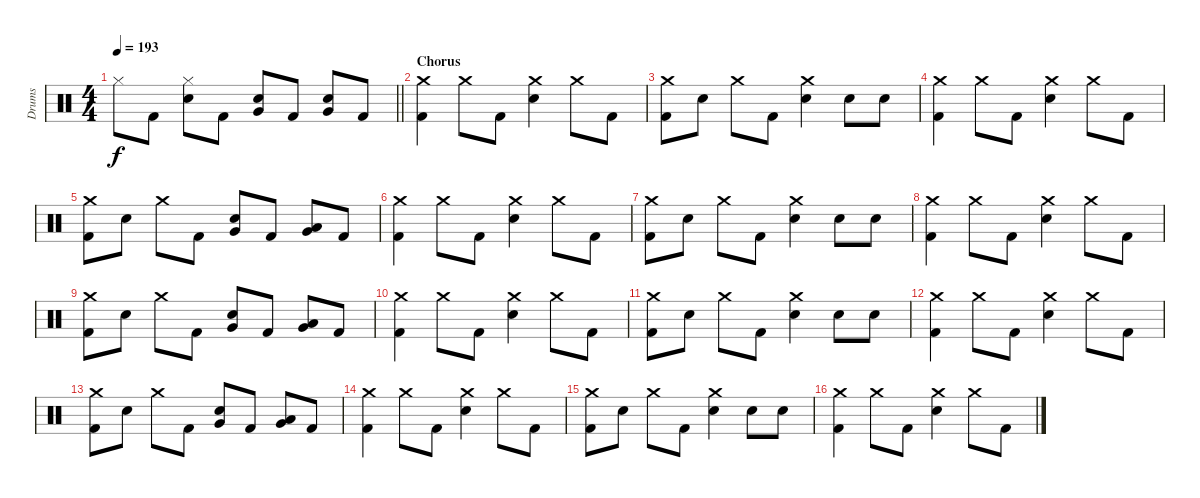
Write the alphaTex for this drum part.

\track ("Drums" "Drums") {instrument percussion}
\staff {score}
\articulation defaults
\ts (4 4)
\tempo 193
\clef neutral
\barLineRight lightlight
\ks c "Hi-Hat (closed)".8{dy f} "Kick (hit) 2".8
("Hi-Hat (closed)" "Electric Snare (hit)").8 "Kick (hit) 2".8 ("Very Low Tom (hit)" "Electric Snare (hit)").8 "Kick (hit) 2".8 ("Very Low Tom (hit)" "Electric Snare (hit)").8 "Kick (hit) 2".8 |
\section ("" "Chorus")
("Crash medium (hit)" "Kick (hit) 2").4 "Crash medium (hit)".8 "Kick (hit) 2".8 ("Crash medium (hit)" "Electric Snare (hit)").4 "Crash medium (hit)".8 "Kick (hit) 2".8 |
("Crash medium (hit)" "Kick (hit) 2").8 "Electric Snare (hit)".8 "Crash medium (hit)".8 "Kick (hit) 2".8 ("Crash medium (hit)" "Electric Snare (hit)").4 "Electric Snare (hit)".8 "Electric Snare (hit)".8 |
("Crash medium (hit)" "Kick (hit) 2").4 "Crash medium (hit)".8 "Kick (hit) 2".8 ("Crash medium (hit)" "Electric Snare (hit)").4 "Crash medium (hit)".8 "Kick (hit) 2".8 |
("Crash medium (hit)" "Kick (hit) 2").8 "Electric Snare (hit)".8 "Crash medium (hit)".8 "Kick (hit) 2".8 ("Very Low Tom (hit)" "Electric Snare (hit)").8 "Kick (hit) 2".8 ("Low Floor Tom (hit)" "Very Low Tom (hit)").8 "Kick (hit) 2".8 |
("Crash medium (hit)" "Kick (hit) 2").4 "Crash medium (hit)".8 "Kick (hit) 2".8 ("Crash medium (hit)" "Electric Snare (hit)").4 "Crash medium (hit)".8 "Kick (hit) 2".8 |
("Crash medium (hit)" "Kick (hit) 2").8 "Electric Snare (hit)".8 "Crash medium (hit)".8 "Kick (hit) 2".8 ("Crash medium (hit)" "Electric Snare (hit)").4 "Electric Snare (hit)".8 "Electric Snare (hit)".8 |
("Crash medium (hit)" "Kick (hit) 2").4 "Crash medium (hit)".8 "Kick (hit) 2".8 ("Crash medium (hit)" "Electric Snare (hit)").4 "Crash medium (hit)".8 "Kick (hit) 2".8 |
("Crash medium (hit)" "Kick (hit) 2").8 "Electric Snare (hit)".8 "Crash medium (hit)".8 "Kick (hit) 2".8 ("Very Low Tom (hit)" "Electric Snare (hit)").8 "Kick (hit) 2".8 ("Low Floor Tom (hit)" "Very Low Tom (hit)").8 "Kick (hit) 2".8 |
("Crash medium (hit)" "Kick (hit) 2").4 "Crash medium (hit)".8 "Kick (hit) 2".8 ("Crash medium (hit)" "Electric Snare (hit)").4 "Crash medium (hit)".8 "Kick (hit) 2".8 |
("Crash medium (hit)" "Kick (hit) 2").8 "Electric Snare (hit)".8 "Crash medium (hit)".8 "Kick (hit) 2".8 ("Crash medium (hit)" "Electric Snare (hit)").4 "Electric Snare (hit)".8 "Electric Snare (hit)".8 |
("Crash medium (hit)" "Kick (hit) 2").4 "Crash medium (hit)".8 "Kick (hit) 2".8 ("Crash medium (hit)" "Electric Snare (hit)").4 "Crash medium (hit)".8 "Kick (hit) 2".8 |
("Crash medium (hit)" "Kick (hit) 2").8 "Electric Snare (hit)".8 "Crash medium (hit)".8 "Kick (hit) 2".8 ("Very Low Tom (hit)" "Electric Snare (hit)").8 "Kick (hit) 2".8 ("Low Floor Tom (hit)" "Very Low Tom (hit)").8 "Kick (hit) 2".8 |
("Crash medium (hit)" "Kick (hit) 2").4 "Crash medium (hit)".8 "Kick (hit) 2".8 ("Crash medium (hit)" "Electric Snare (hit)").4 "Crash medium (hit)".8 "Kick (hit) 2".8 |
("Crash medium (hit)" "Kick (hit) 2").8 "Electric Snare (hit)".8 "Crash medium (hit)".8 "Kick (hit) 2".8 ("Crash medium (hit)" "Electric Snare (hit)").4 "Electric Snare (hit)".8 "Electric Snare (hit)".8 |
("Crash medium (hit)" "Kick (hit) 2").4 "Crash medium (hit)".8 "Kick (hit) 2".8 ("Crash medium (hit)" "Electric Snare (hit)").4 "Crash medium (hit)".8 "Kick (hit) 2".8
